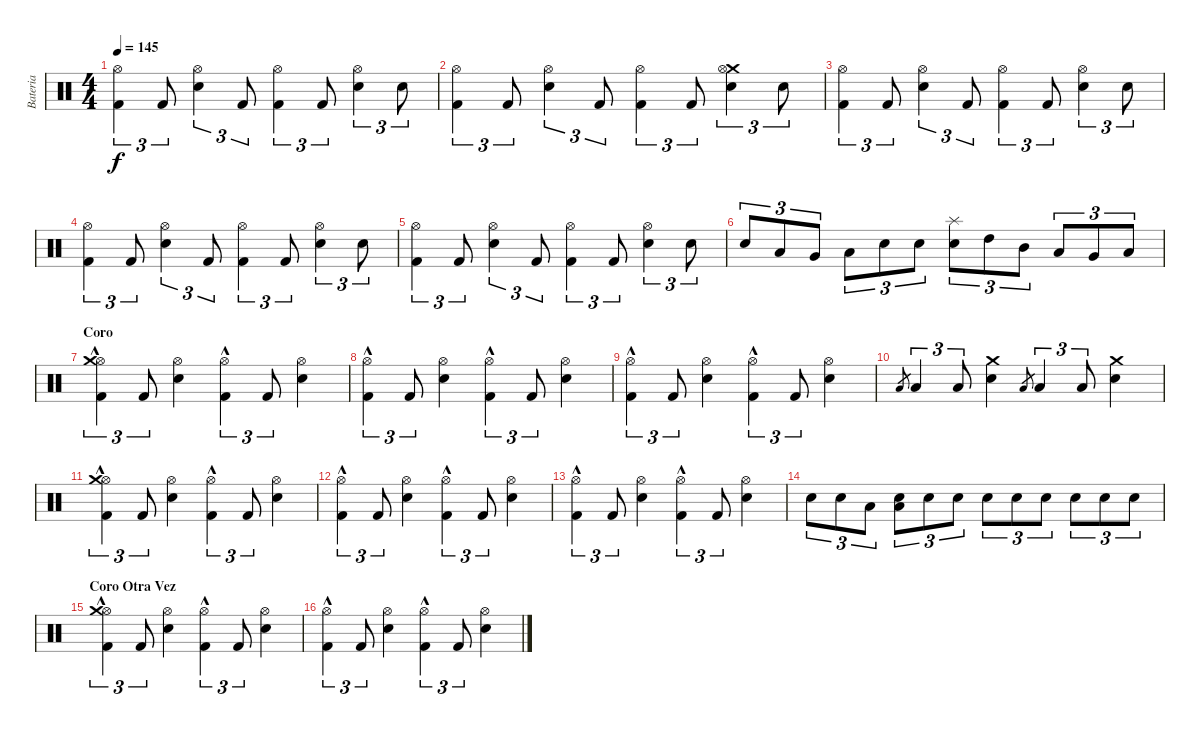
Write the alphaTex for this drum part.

\track ("Bateria" "Bateria") {instrument percussion}
\staff {score}
\articulation defaults
\ts (4 4)
\tempo 145
\clef neutral
\ks c
("Hi-Hat (open)" "Kick (hit) 2").4{tu (3 2) dy f} "Kick (hit) 2".8{tu (3 2)} ("Hi-Hat (open)" "Snare (hit) 2").4{tu (3 2)} "Kick (hit) 2".8{tu (3 2)} ("Hi-Hat (open)" "Kick (hit) 2").4{tu (3 2)} "Kick (hit) 2".8{tu (3 2)} ("Hi-Hat (open)" "Snare (hit) 2").4{tu (3 2)} "Snare (hit) 2".8{tu (3 2)} |
("Hi-Hat (open)" "Kick (hit) 2").4{tu (3 2)} "Kick (hit) 2".8{tu (3 2)} ("Hi-Hat (open)" "Snare (hit) 2").4{tu (3 2)} "Kick (hit) 2".8{tu (3 2)} ("Hi-Hat (open)" "Kick (hit) 2").4{tu (3 2)} "Kick (hit) 2".8{tu (3 2)} ("Crash medium (hit)" "Hi-Hat (open)" "Snare (hit) 2").4{tu (3 2)} "Snare (hit) 2".8{tu (3 2)} |
("Hi-Hat (open)" "Kick (hit) 2").4{tu (3 2)} "Kick (hit) 2".8{tu (3 2)} ("Hi-Hat (open)" "Snare (hit) 2").4{tu (3 2)} "Kick (hit) 2".8{tu (3 2)} ("Hi-Hat (open)" "Kick (hit) 2").4{tu (3 2)} "Kick (hit) 2".8{tu (3 2)} ("Hi-Hat (open)" "Snare (hit) 2").4{tu (3 2)} "Snare (hit) 2".8{tu (3 2)} |
("Hi-Hat (open)" "Kick (hit) 2").4{tu (3 2)} "Kick (hit) 2".8{tu (3 2)} ("Hi-Hat (open)" "Snare (hit) 2").4{tu (3 2)} "Kick (hit) 2".8{tu (3 2)} ("Hi-Hat (open)" "Kick (hit) 2").4{tu (3 2)} "Kick (hit) 2".8{tu (3 2)} ("Hi-Hat (open)" "Snare (hit) 2").4{tu (3 2)} "Snare (hit) 2".8{tu (3 2)} |
("Hi-Hat (open)" "Kick (hit) 2").4{tu (3 2)} "Kick (hit) 2".8{tu (3 2)} ("Hi-Hat (open)" "Snare (hit) 2").4{tu (3 2)} "Kick (hit) 2".8{tu (3 2)} ("Hi-Hat (open)" "Kick (hit) 2").4{tu (3 2)} "Kick (hit) 2".8{tu (3 2)} ("Hi-Hat (open)" "Snare (hit) 2").4{tu (3 2)} "Snare (hit) 2".8{tu (3 2)} |
"Snare (hit) 2".8{tu (3 2)} "Low Tom (hit)".8{tu (3 2)} "Very Low Tom (hit)".8{tu (3 2)} "Low Floor Tom (hit)".8{tu (3 2)} "Snare (hit) 2".8{tu (3 2)} "Snare (hit) 2".8{tu (3 2)} ("Splash (hit)" "Snare (hit) 2").8{tu (3 2)} "High Tom (hit)".8{tu (3 2)} "Mid Tom (hit)".8{tu (3 2)} "Low Tom (hit)".8{tu (3 2)} "Very Low Tom (hit)".8{tu (3 2)} "Low Floor Tom (hit)".8{tu (3 2)} |
\section ("" "Coro")
("Hi-Hat (open)"{hac} "Crash medium (hit)" "Kick (hit) 2").4{tu (3 2)} "Kick (hit) 2".8{tu (3 2)} ("Hi-Hat (open)" "Snare (hit) 2").4 ("Hi-Hat (open)"{hac} "Kick (hit) 2").4{tu (3 2)} "Kick (hit) 2".8{tu (3 2)} ("Hi-Hat (open)" "Snare (hit) 2").4 |
("Hi-Hat (open)"{hac} "Kick (hit) 2").4{tu (3 2)} "Kick (hit) 2".8{tu (3 2)} ("Hi-Hat (open)" "Snare (hit) 2").4 ("Hi-Hat (open)"{hac} "Kick (hit) 2").4{tu (3 2)} "Kick (hit) 2".8{tu (3 2)} ("Hi-Hat (open)" "Snare (hit) 2").4 |
("Hi-Hat (open)"{hac} "Kick (hit) 2").4{tu (3 2)} "Kick (hit) 2".8{tu (3 2)} ("Hi-Hat (open)" "Snare (hit) 2").4 ("Hi-Hat (open)"{hac} "Kick (hit) 2").4{tu (3 2)} "Kick (hit) 2".8{tu (3 2)} ("Hi-Hat (open)" "Snare (hit) 2").4 |
"Low Tom (hit)".8{gr} "Low Tom (hit)".4{tu (3 2)} "Low Tom (hit)".8{tu (3 2)} ("Crash medium (hit)" "Snare (hit) 2").4 "Low Tom (hit)".8{gr} "Low Tom (hit)".4{tu (3 2)} "Low Tom (hit)".8{tu (3 2)} ("Crash medium (hit)" "Snare (hit) 2").4 |
("Hi-Hat (open)"{hac} "Crash medium (hit)" "Kick (hit) 2").4{tu (3 2)} "Kick (hit) 2".8{tu (3 2)} ("Hi-Hat (open)" "Snare (hit) 2").4 ("Hi-Hat (open)"{hac} "Kick (hit) 2").4{tu (3 2)} "Kick (hit) 2".8{tu (3 2)} ("Hi-Hat (open)" "Snare (hit) 2").4 |
("Hi-Hat (open)"{hac} "Kick (hit) 2").4{tu (3 2)} "Kick (hit) 2".8{tu (3 2)} ("Hi-Hat (open)" "Snare (hit) 2").4 ("Hi-Hat (open)"{hac} "Kick (hit) 2").4{tu (3 2)} "Kick (hit) 2".8{tu (3 2)} ("Hi-Hat (open)" "Snare (hit) 2").4 |
("Hi-Hat (open)"{hac} "Kick (hit) 2").4{tu (3 2)} "Kick (hit) 2".8{tu (3 2)} ("Hi-Hat (open)" "Snare (hit) 2").4 ("Hi-Hat (open)"{hac} "Kick (hit) 2").4{tu (3 2)} "Kick (hit) 2".8{tu (3 2)} ("Hi-Hat (open)" "Snare (hit) 2").4 |
"Snare (hit) 2".8{tu (3 2)} "Snare (hit) 2".8{tu (3 2)} "Low Tom (hit)".8{tu (3 2)} ("Snare (hit) 2" "Low Tom (hit)").8{tu (3 2)} "Snare (hit) 2".8{tu (3 2)} "Snare (hit) 2".8{tu (3 2)} "Snare (hit) 2".8{tu (3 2)} "Snare (hit) 2".8{tu (3 2)} "Snare (hit) 2".8{tu (3 2)} "Snare (hit) 2".8{tu (3 2)} "Snare (hit) 2".8{tu (3 2)} "Snare (hit) 2".8{tu (3 2)} |
\section ("" "Coro Otra Vez")
("Hi-Hat (open)"{hac} "Crash medium (hit)" "Kick (hit) 2").4{tu (3 2)} "Kick (hit) 2".8{tu (3 2)} ("Hi-Hat (open)" "Snare (hit) 2").4 ("Hi-Hat (open)"{hac} "Kick (hit) 2").4{tu (3 2)} "Kick (hit) 2".8{tu (3 2)} ("Hi-Hat (open)" "Snare (hit) 2").4 |
("Hi-Hat (open)"{hac} "Kick (hit) 2").4{tu (3 2)} "Kick (hit) 2".8{tu (3 2)} ("Hi-Hat (open)" "Snare (hit) 2").4 ("Hi-Hat (open)"{hac} "Kick (hit) 2").4{tu (3 2)} "Kick (hit) 2".8{tu (3 2)} ("Hi-Hat (open)" "Snare (hit) 2").4
